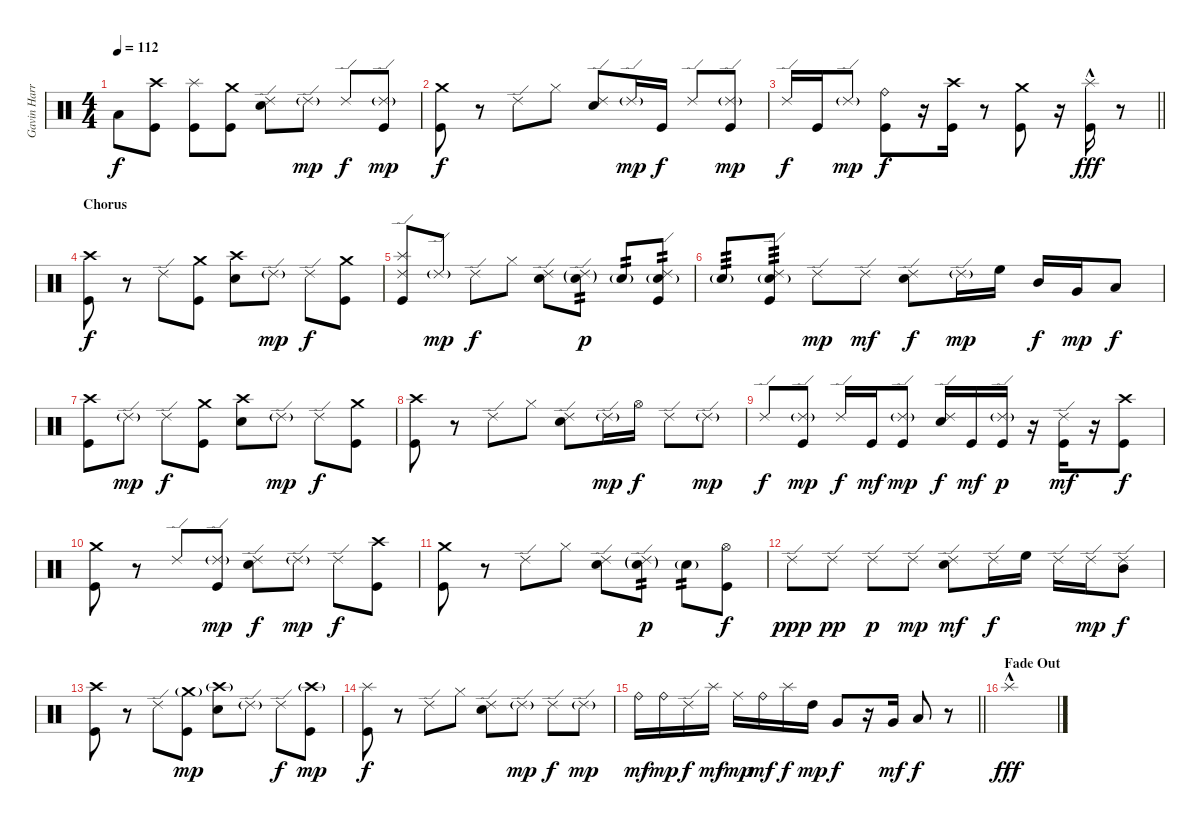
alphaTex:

\track ("Gavin Harrison - Drums" "Gavin Harr") {instrument percussion}
\staff {score}
\articulation defaults
\ts (4 4)
\tempo 112
\clef neutral
\ks c "Low Floor Tom (hit)".8{dy f}
("Crash high (hit)" "Kick (hit)").8 ("Splash (hit)" "Kick (hit)").8 ("Crash medium (hit)" "Kick (hit)").8 ("Ride (edge) 2" "Snare (hit) 2").8 "Ride (edge) 2"{g}.8{dy mp} "Ride (edge) 2".8{dy f} ("Ride (edge) 2"{g} "Kick (hit)").8{dy mp} |
("Crash medium (hit)" "Kick (hit)").8{dy f} r.8 "Ride (edge) 2".8 "Hi-Hat (closed)".8 ("Ride (edge) 2" "Snare (hit) 2").8 "Ride (edge) 2"{g}.16{dy mp} "Kick (hit)".16{dy f} "Ride (edge) 2".8 ("Ride (edge) 2"{g} "Kick (hit)").8{dy mp} |
\barLineRight lightlight "Ride (edge) 2".16{dy f} "Kick (hit)".16 "Ride (edge) 2"{g}.8{dy mp}
("Ride (bell)" "Kick (hit)").8{dy f} r.16 ("Crash high (hit)" "Kick (hit)").16 r.8 ("Crash medium (hit)" "Kick (hit)").8 r.16 ("Splash (hit)"{hac} "Kick (hit)").16{dy fff} r.8 |
\section ("" "Chorus")
("Crash high (hit)" "Kick (hit)").8{dy f} r.8 "Ride (edge) 2".8 ("Crash medium (hit)" "Kick (hit)").8 ("Crash high (hit)" "Snare (hit) 2").8 "Ride (edge) 2"{g}.8{dy mp} "Ride (edge) 2".8{dy f} ("Crash medium (hit)" "Kick (hit)").8 |
("Ride (edge) 2" "Splash (hit)" "Kick (hit)").8 "Ride (edge) 2"{g}.8{dy mp} "Ride (edge) 2".8{dy f} "Hi-Hat (closed)".8 ("Ride (edge) 2" "Snare (hit) 2").8 ("Ride (edge) 2"{g} "Snare (hit) 2"{g}).8{tp 2 dy p} "Snare (hit) 2"{g}.8{tp 2} ("Ride (edge) 2" "Snare (hit) 2"{g} "Kick (hit)").8{tp 2} |
"Snare (hit) 2"{g}.8{tp 3} ("Ride (edge) 2" "Snare (hit) 2"{g} "Kick (hit)").8{tp 3} "Ride (edge) 2".8{dy mp} "Ride (edge) 2".8{dy mf} ("Ride (edge) 2" "Snare (hit) 2").8{dy f} "Ride (edge) 2"{g}.16{dy mp} "High Floor Tom (hit)".16 "Mid Tom (hit)".16{dy f} "Very Low Tom (hit)".16{dy mp} "Low Floor Tom (hit)".8{dy f} |
("Crash high (hit)" "Kick (hit)").8 "Ride (edge) 2"{g}.8{dy mp} "Ride (edge) 2".8{dy f} ("Crash medium (hit)" "Kick (hit)").8 ("Crash high (hit)" "Snare (hit) 2").8 "Ride (edge) 2"{g}.8{dy mp} "Ride (edge) 2".8{dy f} ("Crash medium (hit)" "Kick (hit)").8 |
("Crash high (hit)" "Kick (hit)").8 r.8 "Ride (edge) 2".8 "Hi-Hat (closed)".8 ("Ride (edge) 2" "Snare (hit) 2").8 "Ride (edge) 2"{g}.16{dy mp} "Hi-Hat (open)".16{dy f} "Ride (edge) 2".8 "Ride (edge) 2"{g}.8{dy mp} |
"Ride (edge) 2".8{dy f} ("Ride (edge) 2"{g} "Kick (hit)").8{dy mp} "Ride (edge) 2".16{dy f} "Kick (hit)".16{dy mf} ("Ride (edge) 2"{g} "Kick (hit)").8{dy mp} ("Ride (edge) 2" "Snare (hit) 2").16{dy f} "Kick (hit)".16{dy mf} ("Ride (edge) 2"{g} "Kick (hit)").16{dy p} r.16 ("Ride (edge) 2" "Kick (hit)").16{dy mf} r.16 ("Crash high (hit)" "Kick (hit)").8{dy f} |
("Crash medium (hit)" "Kick (hit)").8 r.8 "Ride (edge) 2".8 ("Ride (edge) 2"{g} "Kick (hit)").8{dy mp} ("Ride (edge) 2" "Snare (hit) 2").8{dy f} "Ride (edge) 2"{g}.8{dy mp} "Ride (edge) 2".8{dy f} ("Crash high (hit)" "Kick (hit)").8 |
("Crash medium (hit)" "Kick (hit)").8 r.8 "Ride (edge) 2".8 "Hi-Hat (closed)".8 ("Ride (edge) 2" "Snare (hit) 2").8 ("Ride (edge) 2"{g} "Snare (hit) 2"{g}).8{tp 2 dy p} "Snare (hit) 2"{g}.8{tp 2} ("Hi-Hat (open)" "Kick (hit)").8{dy f} |
"Ride (edge) 2".8{dy ppp} "Ride (edge) 2".8{dy pp} "Ride (edge) 2".8{dy p} "Ride (edge) 2".8{dy mp} ("Ride (edge) 2" "Snare (hit) 2").8{dy mf} "Ride (edge) 2".16{dy f} "High Floor Tom (hit)".16 "Ride (edge) 2".16 "Ride (edge) 2".16{dy mp} ("Ride (edge) 2" "Mid Tom (hit)").8{dy f} |
("Crash high (hit)" "Kick (hit)").8 r.8 "Ride (edge) 2".8 ("Crash medium (hit)"{g} "Kick (hit)").8{dy mp} ("Crash high (hit)"{g} "Snare (hit) 2").8 "Ride (edge) 2"{g}.8 "Ride (edge) 2".8{dy f} ("Crash high (hit)"{g} "Kick (hit)").8{dy mp} |
("Splash (hit)" "Kick (hit)").8{dy f} r.8 "Ride (edge) 2".8 "Hi-Hat (closed)".8 ("Ride (edge) 2" "Snare (hit) 2").8 "Ride (edge) 2"{g}.8{dy mp} "Ride (edge) 2".8{dy f} "Ride (edge) 2"{g}.8{dy mp} |
\barLineRight lightlight "Ride (bell)".16{dy mf} "Ride (bell)".16{dy mp} "Ride (edge) 2".16{dy f} "Splash (hit)".16{dy mf} "Ride (middle)".16{dy mp} "Ride (bell)".16{dy mf} "Splash (hit)".16{dy f} "High Tom (hit)".16{dy mp} "Very Low Tom (hit)".8{dy f}
r.16 "Very Low Tom (hit)".16{dy mf} "Low Floor Tom (hit)".8{dy f} r.8 |
\section ("" "Fade Out")
"Splash (hit)"{hac}.1{dy fff}
